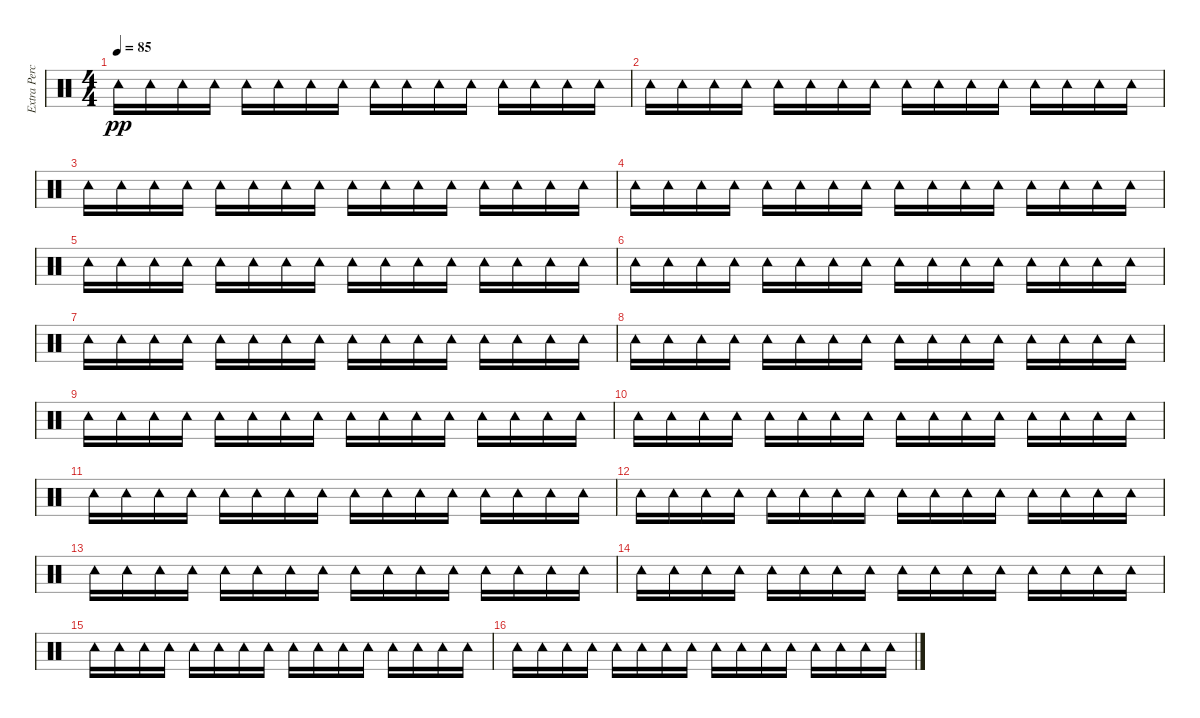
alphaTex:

\track ("Extra Percussion" "Extra Perc") {instrument percussion}
\staff {score}
\articulation defaults
\ts (4 4)
\tempo 85
\clef neutral
\ks c "Tambourine (hit)".16{dy pp} "Tambourine (hit)".16 "Tambourine (hit)".16 "Tambourine (hit)".16 "Tambourine (hit)".16 "Tambourine (hit)".16 "Tambourine (hit)".16 "Tambourine (hit)".16 "Tambourine (hit)".16 "Tambourine (hit)".16 "Tambourine (hit)".16 "Tambourine (hit)".16 "Tambourine (hit)".16 "Tambourine (hit)".16 "Tambourine (hit)".16 "Tambourine (hit)".16
|
"Tambourine (hit)".16 "Tambourine (hit)".16 "Tambourine (hit)".16 "Tambourine (hit)".16 "Tambourine (hit)".16 "Tambourine (hit)".16 "Tambourine (hit)".16 "Tambourine (hit)".16 "Tambourine (hit)".16 "Tambourine (hit)".16 "Tambourine (hit)".16 "Tambourine (hit)".16 "Tambourine (hit)".16 "Tambourine (hit)".16 "Tambourine (hit)".16 "Tambourine (hit)".16 |
"Tambourine (hit)".16 "Tambourine (hit)".16 "Tambourine (hit)".16 "Tambourine (hit)".16 "Tambourine (hit)".16 "Tambourine (hit)".16 "Tambourine (hit)".16 "Tambourine (hit)".16 "Tambourine (hit)".16 "Tambourine (hit)".16 "Tambourine (hit)".16 "Tambourine (hit)".16 "Tambourine (hit)".16 "Tambourine (hit)".16 "Tambourine (hit)".16 "Tambourine (hit)".16 |
"Tambourine (hit)".16 "Tambourine (hit)".16 "Tambourine (hit)".16 "Tambourine (hit)".16 "Tambourine (hit)".16 "Tambourine (hit)".16 "Tambourine (hit)".16 "Tambourine (hit)".16 "Tambourine (hit)".16 "Tambourine (hit)".16 "Tambourine (hit)".16 "Tambourine (hit)".16 "Tambourine (hit)".16 "Tambourine (hit)".16 "Tambourine (hit)".16 "Tambourine (hit)".16 |
"Tambourine (hit)".16 "Tambourine (hit)".16 "Tambourine (hit)".16 "Tambourine (hit)".16 "Tambourine (hit)".16 "Tambourine (hit)".16 "Tambourine (hit)".16 "Tambourine (hit)".16 "Tambourine (hit)".16 "Tambourine (hit)".16 "Tambourine (hit)".16 "Tambourine (hit)".16 "Tambourine (hit)".16 "Tambourine (hit)".16 "Tambourine (hit)".16 "Tambourine (hit)".16 |
"Tambourine (hit)".16 "Tambourine (hit)".16 "Tambourine (hit)".16 "Tambourine (hit)".16 "Tambourine (hit)".16 "Tambourine (hit)".16 "Tambourine (hit)".16 "Tambourine (hit)".16 "Tambourine (hit)".16 "Tambourine (hit)".16 "Tambourine (hit)".16 "Tambourine (hit)".16 "Tambourine (hit)".16 "Tambourine (hit)".16 "Tambourine (hit)".16 "Tambourine (hit)".16 |
"Tambourine (hit)".16 "Tambourine (hit)".16 "Tambourine (hit)".16 "Tambourine (hit)".16 "Tambourine (hit)".16 "Tambourine (hit)".16 "Tambourine (hit)".16 "Tambourine (hit)".16 "Tambourine (hit)".16 "Tambourine (hit)".16 "Tambourine (hit)".16 "Tambourine (hit)".16 "Tambourine (hit)".16 "Tambourine (hit)".16 "Tambourine (hit)".16 "Tambourine (hit)".16 |
"Tambourine (hit)".16 "Tambourine (hit)".16 "Tambourine (hit)".16 "Tambourine (hit)".16 "Tambourine (hit)".16 "Tambourine (hit)".16 "Tambourine (hit)".16 "Tambourine (hit)".16 "Tambourine (hit)".16 "Tambourine (hit)".16 "Tambourine (hit)".16 "Tambourine (hit)".16 "Tambourine (hit)".16 "Tambourine (hit)".16 "Tambourine (hit)".16 "Tambourine (hit)".16 |
"Tambourine (hit)".16 "Tambourine (hit)".16 "Tambourine (hit)".16 "Tambourine (hit)".16 "Tambourine (hit)".16 "Tambourine (hit)".16 "Tambourine (hit)".16 "Tambourine (hit)".16 "Tambourine (hit)".16 "Tambourine (hit)".16 "Tambourine (hit)".16 "Tambourine (hit)".16 "Tambourine (hit)".16 "Tambourine (hit)".16 "Tambourine (hit)".16 "Tambourine (hit)".16 |
"Tambourine (hit)".16 "Tambourine (hit)".16 "Tambourine (hit)".16 "Tambourine (hit)".16 "Tambourine (hit)".16 "Tambourine (hit)".16 "Tambourine (hit)".16 "Tambourine (hit)".16 "Tambourine (hit)".16 "Tambourine (hit)".16 "Tambourine (hit)".16 "Tambourine (hit)".16 "Tambourine (hit)".16 "Tambourine (hit)".16 "Tambourine (hit)".16 "Tambourine (hit)".16 |
"Tambourine (hit)".16 "Tambourine (hit)".16 "Tambourine (hit)".16 "Tambourine (hit)".16 "Tambourine (hit)".16 "Tambourine (hit)".16 "Tambourine (hit)".16 "Tambourine (hit)".16 "Tambourine (hit)".16 "Tambourine (hit)".16 "Tambourine (hit)".16 "Tambourine (hit)".16 "Tambourine (hit)".16 "Tambourine (hit)".16 "Tambourine (hit)".16 "Tambourine (hit)".16 |
"Tambourine (hit)".16 "Tambourine (hit)".16 "Tambourine (hit)".16 "Tambourine (hit)".16 "Tambourine (hit)".16 "Tambourine (hit)".16 "Tambourine (hit)".16 "Tambourine (hit)".16 "Tambourine (hit)".16 "Tambourine (hit)".16 "Tambourine (hit)".16 "Tambourine (hit)".16 "Tambourine (hit)".16 "Tambourine (hit)".16 "Tambourine (hit)".16 "Tambourine (hit)".16 |
"Tambourine (hit)".16 "Tambourine (hit)".16 "Tambourine (hit)".16 "Tambourine (hit)".16 "Tambourine (hit)".16 "Tambourine (hit)".16 "Tambourine (hit)".16 "Tambourine (hit)".16 "Tambourine (hit)".16 "Tambourine (hit)".16 "Tambourine (hit)".16 "Tambourine (hit)".16 "Tambourine (hit)".16 "Tambourine (hit)".16 "Tambourine (hit)".16 "Tambourine (hit)".16 |
"Tambourine (hit)".16 "Tambourine (hit)".16 "Tambourine (hit)".16 "Tambourine (hit)".16 "Tambourine (hit)".16 "Tambourine (hit)".16 "Tambourine (hit)".16 "Tambourine (hit)".16 "Tambourine (hit)".16 "Tambourine (hit)".16 "Tambourine (hit)".16 "Tambourine (hit)".16 "Tambourine (hit)".16 "Tambourine (hit)".16 "Tambourine (hit)".16 "Tambourine (hit)".16 |
"Tambourine (hit)".16 "Tambourine (hit)".16 "Tambourine (hit)".16 "Tambourine (hit)".16 "Tambourine (hit)".16 "Tambourine (hit)".16 "Tambourine (hit)".16 "Tambourine (hit)".16 "Tambourine (hit)".16 "Tambourine (hit)".16 "Tambourine (hit)".16 "Tambourine (hit)".16 "Tambourine (hit)".16 "Tambourine (hit)".16 "Tambourine (hit)".16 "Tambourine (hit)".16 |
"Tambourine (hit)".16 "Tambourine (hit)".16 "Tambourine (hit)".16 "Tambourine (hit)".16 "Tambourine (hit)".16 "Tambourine (hit)".16 "Tambourine (hit)".16 "Tambourine (hit)".16 "Tambourine (hit)".16 "Tambourine (hit)".16 "Tambourine (hit)".16 "Tambourine (hit)".16 "Tambourine (hit)".16 "Tambourine (hit)".16 "Tambourine (hit)".16 "Tambourine (hit)".16
